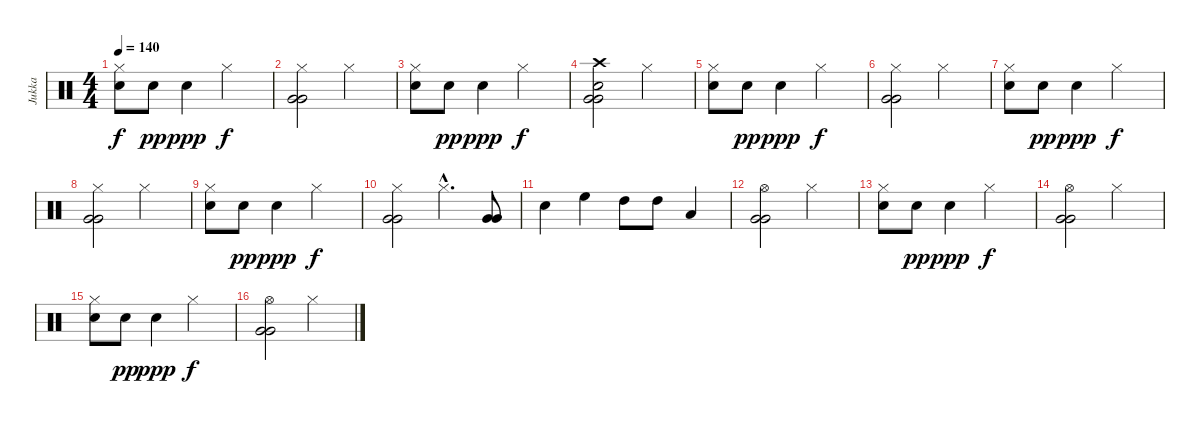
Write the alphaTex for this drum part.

\track ("Jukka" "Jukka") {instrument percussion}
\staff {score}
\articulation defaults
\ts (4 4)
\tempo 140
\clef neutral
\ks c
("Hi-Hat (closed)" "Electric Snare (hit)").8{dy f} "Electric Snare (hit)".8{dy pp} "Electric Snare (hit)".4{dy ppp} "Hi-Hat (closed)".2{dy f} |
("Hi-Hat (closed)" "Very Low Tom (hit)" "Very Low Tom (hit)").2 "Hi-Hat (closed)".2 |
("Hi-Hat (closed)" "Electric Snare (hit)").8 "Electric Snare (hit)".8{dy pp} "Electric Snare (hit)".4{dy ppp} "Hi-Hat (closed)".2{dy f} |
("Crash high (hit)" "Electric Snare (hit)" "Very Low Tom (hit)" "Very Low Tom (hit)").2 "Hi-Hat (closed)".2 |
("Hi-Hat (closed)" "Electric Snare (hit)").8 "Electric Snare (hit)".8{dy pp} "Electric Snare (hit)".4{dy ppp} "Hi-Hat (closed)".2{dy f} |
("Hi-Hat (closed)" "Very Low Tom (hit)" "Very Low Tom (hit)").2 "Hi-Hat (closed)".2 |
("Hi-Hat (closed)" "Electric Snare (hit)").8 "Electric Snare (hit)".8{dy pp} "Electric Snare (hit)".4{dy ppp} "Hi-Hat (closed)".2{dy f} |
("Hi-Hat (closed)" "Very Low Tom (hit)" "Very Low Tom (hit)").2 "Hi-Hat (closed)".2 |
("Hi-Hat (closed)" "Electric Snare (hit)").8 "Electric Snare (hit)".8{dy pp} "Electric Snare (hit)".4{dy ppp} "Hi-Hat (closed)".2{dy f} |
("Hi-Hat (closed)" "Very Low Tom (hit)" "Very Low Tom (hit)").2 "Hi-Hat (closed)"{hac}.4{d} ("Very Low Tom (hit)" "Very Low Tom (hit)").8 |
"Electric Snare (hit)".4 "High Floor Tom (hit)".4 "High Tom (hit)".8 "High Tom (hit)".8 "Low Tom (hit)".4 |
("Hi-Hat (open)" "Very Low Tom (hit)" "Very Low Tom (hit)").2 "Hi-Hat (closed)".2 |
("Hi-Hat (closed)" "Electric Snare (hit)").8 "Electric Snare (hit)".8{dy pp} "Electric Snare (hit)".4{dy ppp} "Hi-Hat (closed)".2{dy f} |
("Hi-Hat (open)" "Very Low Tom (hit)" "Very Low Tom (hit)").2 "Hi-Hat (closed)".2 |
("Hi-Hat (closed)" "Electric Snare (hit)").8 "Electric Snare (hit)".8{dy pp} "Electric Snare (hit)".4{dy ppp} "Hi-Hat (closed)".2{dy f} |
("Hi-Hat (open)" "Very Low Tom (hit)" "Very Low Tom (hit)").2 "Hi-Hat (closed)".2
